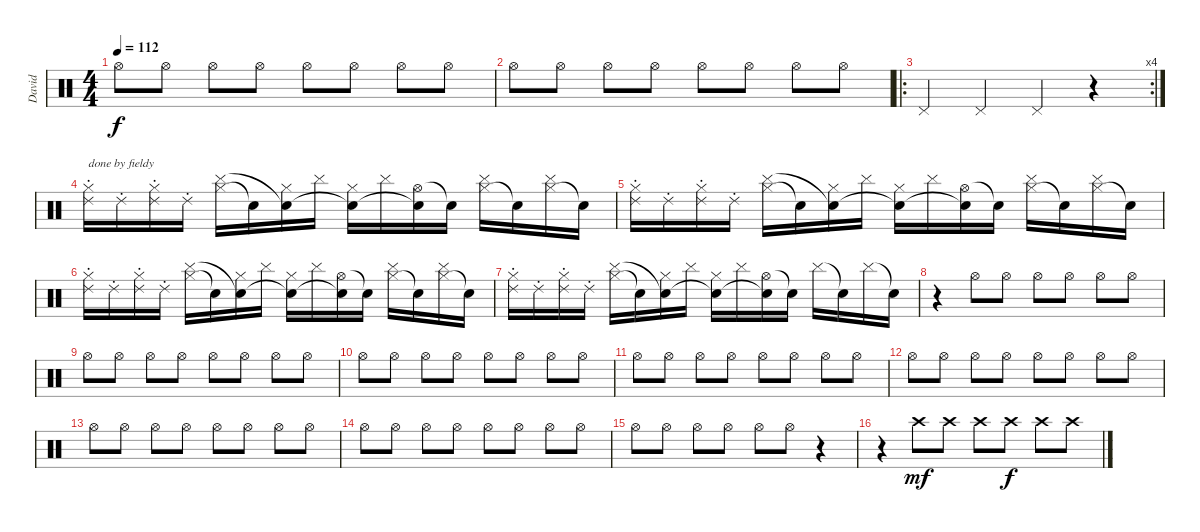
\track ("David" "David") {instrument percussion}
\staff {score}
\articulation defaults
\ts (4 4)
\tempo 112
\clef neutral
\ks c "Hi-Hat (open)".8{dy f} "Hi-Hat (open)".8 "Hi-Hat (open)".8 "Hi-Hat (open)".8 "Hi-Hat (open)".8 "Hi-Hat (open)".8 "Hi-Hat (open)".8 "Hi-Hat (open)".8
|
"Hi-Hat (open)".8 "Hi-Hat (open)".8 "Hi-Hat (open)".8 "Hi-Hat (open)".8 "Hi-Hat (open)".8 "Hi-Hat (open)".8 "Hi-Hat (open)".8 "Hi-Hat (open)".8 |
\ro
\rc 4 "Pedal Hi-Hat (hit)".4 "Pedal Hi-Hat (hit)".4 "Pedal Hi-Hat (hit)".4
r.4 |
("Hi-Hat (closed)" "Ride (choke) 2").16{txt "done by fieldy"} "Ride (choke) 2".16 ("Hi-Hat (closed)" "Ride (choke) 2").16 "Ride (choke) 2".16 ("Hi-Hat (closed)" "Cymbal (hit)").16 "Snare (hit)"{t}.16 ("Hi-Hat (closed)" "Snare (hit)"{t}).16 "Cymbal (hit)".16 ("Hi-Hat (closed)" "Snare (hit)"{t}).16 "Cymbal (hit)".16 ("Hi-Hat (open)" "Snare (hit)"{t}).16 "Snare (hit)"{t}.16 ("Hi-Hat (closed)" "Cymbal (hit)").16 "Snare (hit)"{t}.16 ("Hi-Hat (closed)" "Cymbal (hit)").16 "Snare (hit)"{t}.16 |
("Hi-Hat (closed)" "Ride (choke) 2").16 "Ride (choke) 2".16 ("Hi-Hat (closed)" "Ride (choke) 2").16 "Ride (choke) 2".16 ("Hi-Hat (closed)" "Cymbal (hit)").16 "Snare (hit)"{t}.16 ("Hi-Hat (closed)" "Snare (hit)"{t}).16 "Cymbal (hit)".16 ("Hi-Hat (closed)" "Snare (hit)"{t}).16 "Cymbal (hit)".16 ("Hi-Hat (open)" "Snare (hit)"{t}).16 "Snare (hit)"{t}.16 ("Hi-Hat (closed)" "Cymbal (hit)").16 "Snare (hit)"{t}.16 ("Hi-Hat (closed)" "Cymbal (hit)").16 "Snare (hit)"{t}.16 |
("Hi-Hat (closed)" "Ride (choke) 2").16 "Ride (choke) 2".16 ("Hi-Hat (closed)" "Ride (choke) 2").16 "Ride (choke) 2".16 ("Hi-Hat (closed)" "Cymbal (hit)").16 "Snare (hit)"{t}.16 ("Hi-Hat (closed)" "Snare (hit)"{t}).16 "Cymbal (hit)".16 ("Hi-Hat (closed)" "Snare (hit)"{t}).16 "Cymbal (hit)".16 ("Hi-Hat (open)" "Snare (hit)"{t}).16 "Snare (hit)"{t}.16 ("Hi-Hat (closed)" "Cymbal (hit)").16 "Snare (hit)"{t}.16 ("Hi-Hat (closed)" "Cymbal (hit)").16 "Snare (hit)"{t}.16 |
("Hi-Hat (closed)" "Ride (choke) 2").16 "Ride (choke) 2".16 ("Hi-Hat (closed)" "Ride (choke) 2").16 "Ride (choke) 2".16 ("Hi-Hat (closed)" "Cymbal (hit)").16 "Snare (hit)"{t}.16 ("Hi-Hat (closed)" "Snare (hit)"{t}).16 "Cymbal (hit)".16 ("Hi-Hat (closed)" "Snare (hit)"{t}).16 "Cymbal (hit)".16 ("Hi-Hat (open)" "Snare (hit)"{t}).16 "Snare (hit)"{t}.16 "Cymbal (hit)".16 "Snare (hit)"{t}.16 "Cymbal (hit)".16 "Snare (hit)"{t}.16 |
r.4 "Hi-Hat (open)".8 "Hi-Hat (open)".8 "Hi-Hat (open)".8 "Hi-Hat (open)".8 "Hi-Hat (open)".8 "Hi-Hat (open)".8 |
"Hi-Hat (open)".8 "Hi-Hat (open)".8 "Hi-Hat (open)".8 "Hi-Hat (open)".8 "Hi-Hat (open)".8 "Hi-Hat (open)".8 "Hi-Hat (open)".8 "Hi-Hat (open)".8 |
"Hi-Hat (open)".8 "Hi-Hat (open)".8 "Hi-Hat (open)".8 "Hi-Hat (open)".8 "Hi-Hat (open)".8 "Hi-Hat (open)".8 "Hi-Hat (open)".8 "Hi-Hat (open)".8 |
"Hi-Hat (open)".8 "Hi-Hat (open)".8 "Hi-Hat (open)".8 "Hi-Hat (open)".8 "Hi-Hat (open)".8 "Hi-Hat (open)".8 "Hi-Hat (open)".8 "Hi-Hat (open)".8 |
"Hi-Hat (open)".8 "Hi-Hat (open)".8 "Hi-Hat (open)".8 "Hi-Hat (open)".8 "Hi-Hat (open)".8 "Hi-Hat (open)".8 "Hi-Hat (open)".8 "Hi-Hat (open)".8 |
"Hi-Hat (open)".8 "Hi-Hat (open)".8 "Hi-Hat (open)".8 "Hi-Hat (open)".8 "Hi-Hat (open)".8 "Hi-Hat (open)".8 "Hi-Hat (open)".8 "Hi-Hat (open)".8 |
"Hi-Hat (open)".8 "Hi-Hat (open)".8 "Hi-Hat (open)".8 "Hi-Hat (open)".8 "Hi-Hat (open)".8 "Hi-Hat (open)".8 "Hi-Hat (open)".8 "Hi-Hat (open)".8 |
"Hi-Hat (open)".8 "Hi-Hat (open)".8 "Hi-Hat (open)".8 "Hi-Hat (open)".8 "Hi-Hat (open)".8 "Hi-Hat (open)".8 r.4 |
r.4 "Crash high (hit)".8{dy mf} "Crash high (hit)".8 "Crash high (hit)".8 "Crash high (hit)".8{dy f} "Crash high (hit)".8 "Crash high (hit)".8
